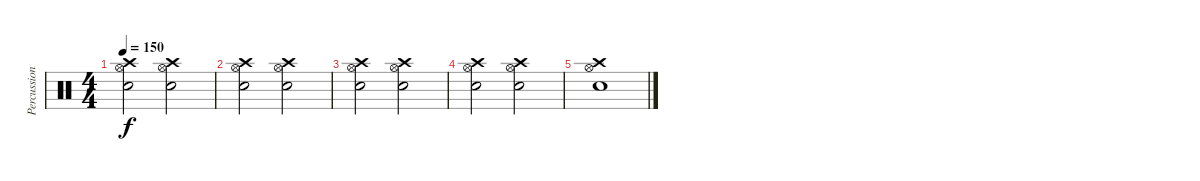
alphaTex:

\track ("Percussion" "Percussion") {instrument percussion}
\staff {score}
\articulation defaults
\ts (4 4)
\tempo 150
\clef neutral
\ks c
("Crash high (hit)" "Snare (hit) 2" "Hi-Hat (open)").2{dy f} ("Crash high (hit)" "Snare (hit) 2" "Hi-Hat (open)").2 |
("Crash high (hit)" "Snare (hit) 2" "Hi-Hat (open)").2 ("Crash high (hit)" "Snare (hit) 2" "Hi-Hat (open)").2 |
("Crash high (hit)" "Snare (hit) 2" "Hi-Hat (open)").2 ("Crash high (hit)" "Snare (hit) 2" "Hi-Hat (open)").2 |
("Crash high (hit)" "Snare (hit) 2" "Hi-Hat (open)").2 ("Crash high (hit)" "Snare (hit) 2" "Hi-Hat (open)").2 |
("Crash high (hit)" "Snare (hit) 2" "Hi-Hat (open)").1
